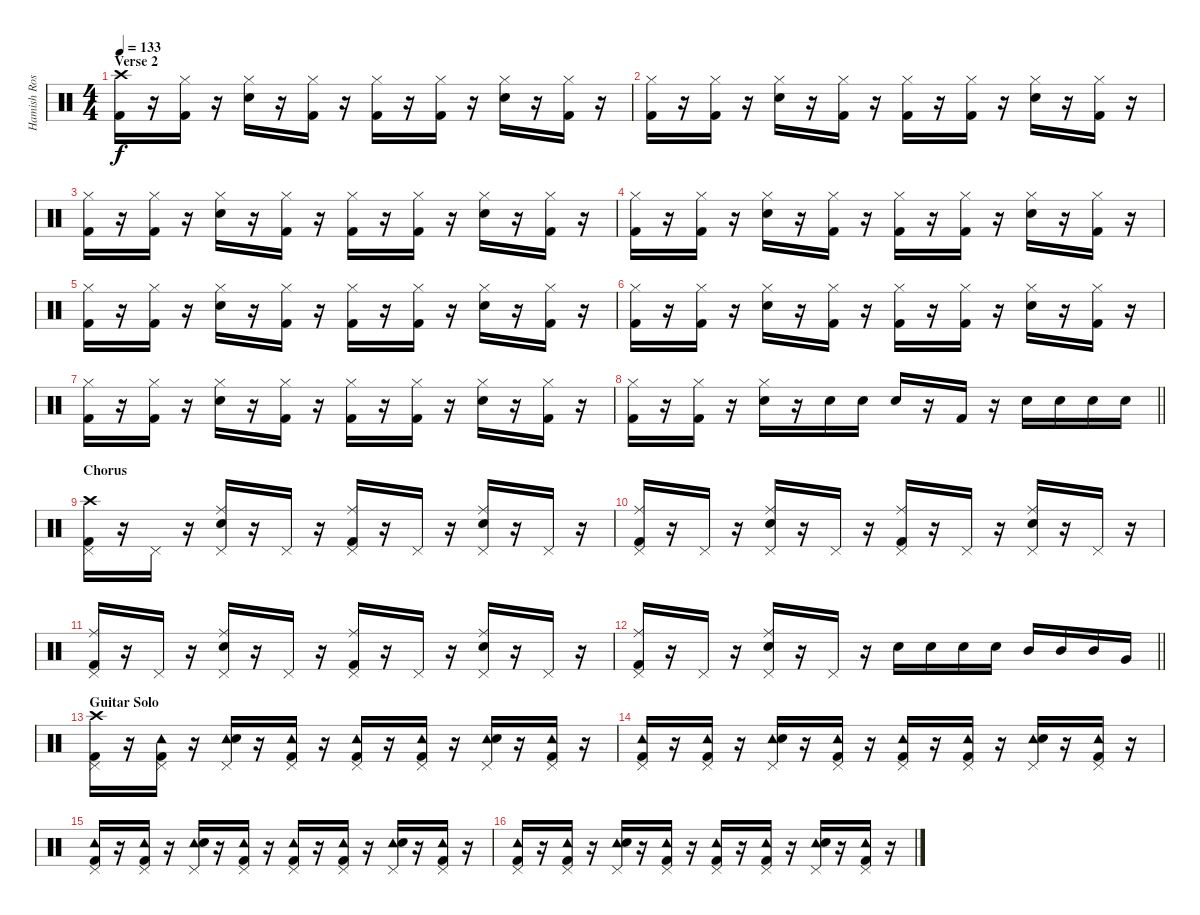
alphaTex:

\track ("Hamish Rosser (Main-Tune Drums Track)" "Hamish Ros") {instrument percussion}
\staff {score}
\articulation defaults
\ts (4 4)
\section ("" "Verse 2")
\tempo 133
\clef neutral
\ks c
("Crash high (hit)" "Kick (hit) 2").16{dy f} r.16 ("Hi-Hat (closed)" "Kick (hit) 2").16 r.16 ("Hi-Hat (closed)" "Snare (hit) 2").16 r.16 ("Hi-Hat (closed)" "Kick (hit) 2").16 r.16 ("Hi-Hat (closed)" "Kick (hit) 2").16 r.16 ("Hi-Hat (closed)" "Kick (hit) 2").16 r.16 ("Hi-Hat (closed)" "Snare (hit) 2").16 r.16 ("Hi-Hat (closed)" "Kick (hit) 2").16 r.16 |
("Hi-Hat (closed)" "Kick (hit) 2").16 r.16 ("Hi-Hat (closed)" "Kick (hit) 2").16 r.16 ("Hi-Hat (closed)" "Snare (hit) 2").16 r.16 ("Hi-Hat (closed)" "Kick (hit) 2").16 r.16 ("Hi-Hat (closed)" "Kick (hit) 2").16 r.16 ("Hi-Hat (closed)" "Kick (hit) 2").16 r.16 ("Hi-Hat (closed)" "Snare (hit) 2").16 r.16 ("Hi-Hat (closed)" "Kick (hit) 2").16 r.16 |
("Hi-Hat (closed)" "Kick (hit) 2").16 r.16 ("Hi-Hat (closed)" "Kick (hit) 2").16 r.16 ("Hi-Hat (closed)" "Snare (hit) 2").16 r.16 ("Hi-Hat (closed)" "Kick (hit) 2").16 r.16 ("Hi-Hat (closed)" "Kick (hit) 2").16 r.16 ("Hi-Hat (closed)" "Kick (hit) 2").16 r.16 ("Hi-Hat (closed)" "Snare (hit) 2").16 r.16 ("Hi-Hat (closed)" "Kick (hit) 2").16 r.16 |
("Hi-Hat (closed)" "Kick (hit) 2").16 r.16 ("Hi-Hat (closed)" "Kick (hit) 2").16 r.16 ("Hi-Hat (closed)" "Snare (hit) 2").16 r.16 ("Hi-Hat (closed)" "Kick (hit) 2").16 r.16 ("Hi-Hat (closed)" "Kick (hit) 2").16 r.16 ("Hi-Hat (closed)" "Kick (hit) 2").16 r.16 ("Hi-Hat (closed)" "Snare (hit) 2").16 r.16 ("Hi-Hat (closed)" "Kick (hit) 2").16 r.16 |
("Hi-Hat (closed)" "Kick (hit) 2").16 r.16 ("Hi-Hat (closed)" "Kick (hit) 2").16 r.16 ("Hi-Hat (closed)" "Snare (hit) 2").16 r.16 ("Hi-Hat (closed)" "Kick (hit) 2").16 r.16 ("Hi-Hat (closed)" "Kick (hit) 2").16 r.16 ("Hi-Hat (closed)" "Kick (hit) 2").16 r.16 ("Hi-Hat (closed)" "Snare (hit) 2").16 r.16 ("Hi-Hat (closed)" "Kick (hit) 2").16 r.16 |
("Hi-Hat (closed)" "Kick (hit) 2").16 r.16 ("Hi-Hat (closed)" "Kick (hit) 2").16 r.16 ("Hi-Hat (closed)" "Snare (hit) 2").16 r.16 ("Hi-Hat (closed)" "Kick (hit) 2").16 r.16 ("Hi-Hat (closed)" "Kick (hit) 2").16 r.16 ("Hi-Hat (closed)" "Kick (hit) 2").16 r.16 ("Hi-Hat (closed)" "Snare (hit) 2").16 r.16 ("Hi-Hat (closed)" "Kick (hit) 2").16 r.16 |
("Hi-Hat (closed)" "Kick (hit) 2").16 r.16 ("Hi-Hat (closed)" "Kick (hit) 2").16 r.16 ("Hi-Hat (closed)" "Snare (hit) 2").16 r.16 ("Hi-Hat (closed)" "Kick (hit) 2").16 r.16 ("Hi-Hat (closed)" "Kick (hit) 2").16 r.16 ("Hi-Hat (closed)" "Kick (hit) 2").16 r.16 ("Hi-Hat (closed)" "Snare (hit) 2").16 r.16 ("Hi-Hat (closed)" "Kick (hit) 2").16 r.16 |
\barLineRight lightlight
("Hi-Hat (closed)" "Kick (hit) 2").16 r.16 ("Hi-Hat (closed)" "Kick (hit) 2").16 r.16 ("Hi-Hat (closed)" "Snare (hit) 2").16 r.16 "Snare (hit) 2".16 "Snare (hit) 2".16 "Snare (hit) 2".16 r.16 "Kick (hit) 2".16 r.16 "Snare (hit) 2".16 "Snare (hit) 2".16 "Snare (hit) 2".16 "Snare (hit) 2".16 |
\section ("" "Chorus")
("Crash high (hit)" "Pedal Hi-Hat (hit)" "Kick (hit) 2").16 r.16 "Pedal Hi-Hat (hit)".16 r.16 ("Ride (middle)" "Pedal Hi-Hat (hit)" "Snare (hit) 2").16 r.16 "Pedal Hi-Hat (hit)".16 r.16 ("Ride (middle)" "Pedal Hi-Hat (hit)" "Kick (hit) 2").16 r.16 "Pedal Hi-Hat (hit)".16 r.16 ("Ride (middle)" "Pedal Hi-Hat (hit)" "Snare (hit) 2").16 r.16 "Pedal Hi-Hat (hit)".16 r.16 |
("Ride (middle)" "Pedal Hi-Hat (hit)" "Kick (hit) 2").16 r.16 "Pedal Hi-Hat (hit)".16 r.16 ("Ride (middle)" "Pedal Hi-Hat (hit)" "Snare (hit) 2").16 r.16 "Pedal Hi-Hat (hit)".16 r.16 ("Ride (middle)" "Pedal Hi-Hat (hit)" "Kick (hit) 2").16 r.16 "Pedal Hi-Hat (hit)".16 r.16 ("Ride (middle)" "Pedal Hi-Hat (hit)" "Snare (hit) 2").16 r.16 "Pedal Hi-Hat (hit)".16 r.16 |
("Ride (middle)" "Pedal Hi-Hat (hit)" "Kick (hit) 2").16 r.16 "Pedal Hi-Hat (hit)".16 r.16 ("Ride (middle)" "Pedal Hi-Hat (hit)" "Snare (hit) 2").16 r.16 "Pedal Hi-Hat (hit)".16 r.16 ("Ride (middle)" "Pedal Hi-Hat (hit)" "Kick (hit) 2").16 r.16 "Pedal Hi-Hat (hit)".16 r.16 ("Ride (middle)" "Pedal Hi-Hat (hit)" "Snare (hit) 2").16 r.16 "Pedal Hi-Hat (hit)".16 r.16 |
\barLineRight lightlight
("Ride (middle)" "Pedal Hi-Hat (hit)" "Kick (hit) 2").16 r.16 "Pedal Hi-Hat (hit)".16 r.16 ("Ride (middle)" "Pedal Hi-Hat (hit)" "Snare (hit) 2").16 r.16 "Pedal Hi-Hat (hit)".16 r.16 "Snare (hit) 2".16 "Snare (hit) 2".16 "Snare (hit) 2".16 "Snare (hit) 2".16 "Mid Tom (hit)".16 "Mid Tom (hit)".16 "Mid Tom (hit)".16 "Very Low Tom (hit)".16 |
\section ("" "Guitar Solo")
("Crash high (hit)" "Pedal Hi-Hat (hit)" "Kick (hit) 2").16 r.16 ("Tambourine (hit)" "Pedal Hi-Hat (hit)" "Kick (hit) 2").16 r.16 ("Tambourine (hit)" "Pedal Hi-Hat (hit)" "Snare (hit) 2").16 r.16 ("Tambourine (hit)" "Pedal Hi-Hat (hit)" "Kick (hit) 2").16 r.16 ("Tambourine (hit)" "Pedal Hi-Hat (hit)" "Kick (hit) 2").16 r.16 ("Tambourine (hit)" "Pedal Hi-Hat (hit)" "Kick (hit) 2").16 r.16 ("Tambourine (hit)" "Pedal Hi-Hat (hit)" "Snare (hit) 2").16 r.16 ("Tambourine (hit)" "Pedal Hi-Hat (hit)" "Kick (hit) 2").16 r.16 |
("Tambourine (hit)" "Pedal Hi-Hat (hit)" "Kick (hit) 2").16 r.16 ("Tambourine (hit)" "Pedal Hi-Hat (hit)" "Kick (hit) 2").16 r.16 ("Tambourine (hit)" "Pedal Hi-Hat (hit)" "Snare (hit) 2").16 r.16 ("Tambourine (hit)" "Pedal Hi-Hat (hit)" "Kick (hit) 2").16 r.16 ("Tambourine (hit)" "Pedal Hi-Hat (hit)" "Kick (hit) 2").16 r.16 ("Tambourine (hit)" "Pedal Hi-Hat (hit)" "Kick (hit) 2").16 r.16 ("Tambourine (hit)" "Pedal Hi-Hat (hit)" "Snare (hit) 2").16 r.16 ("Tambourine (hit)" "Pedal Hi-Hat (hit)" "Kick (hit) 2").16 r.16 |
("Tambourine (hit)" "Pedal Hi-Hat (hit)" "Kick (hit) 2").16 r.16 ("Tambourine (hit)" "Pedal Hi-Hat (hit)" "Kick (hit) 2").16 r.16 ("Tambourine (hit)" "Pedal Hi-Hat (hit)" "Snare (hit) 2").16 r.16 ("Tambourine (hit)" "Pedal Hi-Hat (hit)" "Kick (hit) 2").16 r.16 ("Tambourine (hit)" "Pedal Hi-Hat (hit)" "Kick (hit) 2").16 r.16 ("Tambourine (hit)" "Pedal Hi-Hat (hit)" "Kick (hit) 2").16 r.16 ("Tambourine (hit)" "Pedal Hi-Hat (hit)" "Snare (hit) 2").16 r.16 ("Tambourine (hit)" "Pedal Hi-Hat (hit)" "Kick (hit) 2").16 r.16 |
("Tambourine (hit)" "Pedal Hi-Hat (hit)" "Kick (hit) 2").16 r.16 ("Tambourine (hit)" "Pedal Hi-Hat (hit)" "Kick (hit) 2").16 r.16 ("Tambourine (hit)" "Pedal Hi-Hat (hit)" "Snare (hit) 2").16 r.16 ("Tambourine (hit)" "Pedal Hi-Hat (hit)" "Kick (hit) 2").16 r.16 ("Tambourine (hit)" "Pedal Hi-Hat (hit)" "Kick (hit) 2").16 r.16 ("Tambourine (hit)" "Pedal Hi-Hat (hit)" "Kick (hit) 2").16 r.16 ("Tambourine (hit)" "Pedal Hi-Hat (hit)" "Snare (hit) 2").16 r.16 ("Tambourine (hit)" "Pedal Hi-Hat (hit)" "Kick (hit) 2").16 r.16
